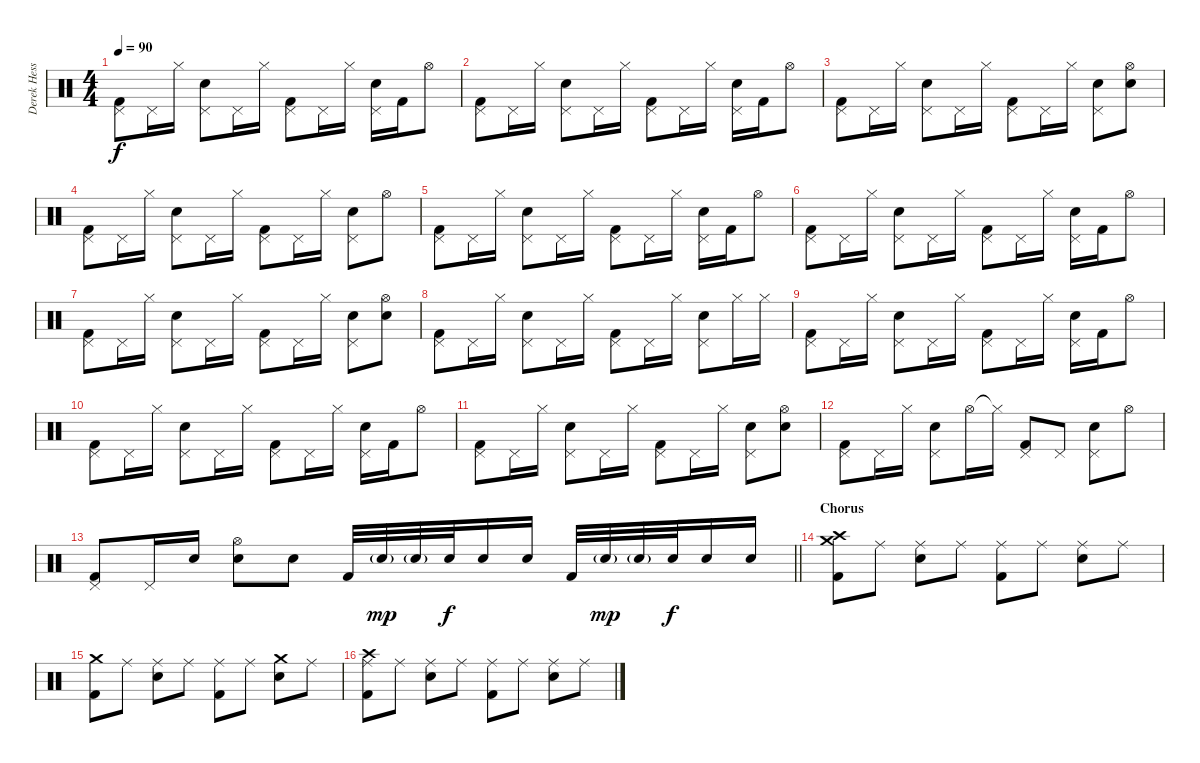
\track ("Derek Hess (Drums and Percussion)" "Derek Hess") {instrument percussion}
\staff {score}
\articulation defaults
\ts (4 4)
\tempo 90
\clef neutral
\ks c
("Pedal Hi-Hat (hit)" "Kick (hit) 2").8{dy f} "Pedal Hi-Hat (hit)".16 "Hi-Hat (closed)".16 ("Snare (hit) 2" "Pedal Hi-Hat (hit)").8 "Pedal Hi-Hat (hit)".16 "Hi-Hat (closed)".16 ("Pedal Hi-Hat (hit)" "Kick (hit) 2").8 "Pedal Hi-Hat (hit)".16 "Hi-Hat (closed)".16 ("Snare (hit) 2" "Pedal Hi-Hat (hit)").16 "Kick (hit) 2".16 "Hi-Hat (open)".8 |
("Pedal Hi-Hat (hit)" "Kick (hit) 2").8 "Pedal Hi-Hat (hit)".16 "Hi-Hat (closed)".16 ("Snare (hit) 2" "Pedal Hi-Hat (hit)").8 "Pedal Hi-Hat (hit)".16 "Hi-Hat (closed)".16 ("Pedal Hi-Hat (hit)" "Kick (hit) 2").8 "Pedal Hi-Hat (hit)".16 "Hi-Hat (closed)".16 ("Snare (hit) 2" "Pedal Hi-Hat (hit)").16 "Kick (hit) 2".16 "Hi-Hat (open)".8 |
("Pedal Hi-Hat (hit)" "Kick (hit) 2").8 "Pedal Hi-Hat (hit)".16 "Hi-Hat (closed)".16 ("Snare (hit) 2" "Pedal Hi-Hat (hit)").8 "Pedal Hi-Hat (hit)".16 "Hi-Hat (closed)".16 ("Pedal Hi-Hat (hit)" "Kick (hit) 2").8 "Pedal Hi-Hat (hit)".16 "Hi-Hat (closed)".16 ("Snare (hit) 2" "Pedal Hi-Hat (hit)").8 ("Snare (hit) 2" "Hi-Hat (open)").8 |
("Pedal Hi-Hat (hit)" "Kick (hit) 2").8 "Pedal Hi-Hat (hit)".16 "Hi-Hat (closed)".16 ("Snare (hit) 2" "Pedal Hi-Hat (hit)").8 "Pedal Hi-Hat (hit)".16 "Hi-Hat (closed)".16 ("Pedal Hi-Hat (hit)" "Kick (hit) 2").8 "Pedal Hi-Hat (hit)".16 "Hi-Hat (closed)".16 ("Snare (hit) 2" "Pedal Hi-Hat (hit)").8 "Hi-Hat (open)".8 |
("Pedal Hi-Hat (hit)" "Kick (hit) 2").8 "Pedal Hi-Hat (hit)".16 "Hi-Hat (closed)".16 ("Snare (hit) 2" "Pedal Hi-Hat (hit)").8 "Pedal Hi-Hat (hit)".16 "Hi-Hat (closed)".16 ("Pedal Hi-Hat (hit)" "Kick (hit) 2").8 "Pedal Hi-Hat (hit)".16 "Hi-Hat (closed)".16 ("Snare (hit) 2" "Pedal Hi-Hat (hit)").16 "Kick (hit) 2".16 "Hi-Hat (open)".8 |
("Pedal Hi-Hat (hit)" "Kick (hit) 2").8 "Pedal Hi-Hat (hit)".16 "Hi-Hat (closed)".16 ("Snare (hit) 2" "Pedal Hi-Hat (hit)").8 "Pedal Hi-Hat (hit)".16 "Hi-Hat (closed)".16 ("Pedal Hi-Hat (hit)" "Kick (hit) 2").8 "Pedal Hi-Hat (hit)".16 "Hi-Hat (closed)".16 ("Snare (hit) 2" "Pedal Hi-Hat (hit)").16 "Kick (hit) 2".16 "Hi-Hat (open)".8 |
("Pedal Hi-Hat (hit)" "Kick (hit) 2").8 "Pedal Hi-Hat (hit)".16 "Hi-Hat (closed)".16 ("Snare (hit) 2" "Pedal Hi-Hat (hit)").8 "Pedal Hi-Hat (hit)".16 "Hi-Hat (closed)".16 ("Pedal Hi-Hat (hit)" "Kick (hit) 2").8 "Pedal Hi-Hat (hit)".16 "Hi-Hat (closed)".16 ("Snare (hit) 2" "Pedal Hi-Hat (hit)").8 ("Snare (hit) 2" "Hi-Hat (open)").8 |
("Pedal Hi-Hat (hit)" "Kick (hit) 2").8 "Pedal Hi-Hat (hit)".16 "Hi-Hat (closed)".16 ("Snare (hit) 2" "Pedal Hi-Hat (hit)").8 "Pedal Hi-Hat (hit)".16 "Hi-Hat (closed)".16 ("Pedal Hi-Hat (hit)" "Kick (hit) 2").8 "Pedal Hi-Hat (hit)".16 "Hi-Hat (closed)".16 ("Snare (hit) 2" "Pedal Hi-Hat (hit)").8 "Hi-Hat (closed)".16 "Hi-Hat (closed)".16 |
("Pedal Hi-Hat (hit)" "Kick (hit) 2").8 "Pedal Hi-Hat (hit)".16 "Hi-Hat (closed)".16 ("Snare (hit) 2" "Pedal Hi-Hat (hit)").8 "Pedal Hi-Hat (hit)".16 "Hi-Hat (closed)".16 ("Pedal Hi-Hat (hit)" "Kick (hit) 2").8 "Pedal Hi-Hat (hit)".16 "Hi-Hat (closed)".16 ("Snare (hit) 2" "Pedal Hi-Hat (hit)").16 "Kick (hit) 2".16 "Hi-Hat (open)".8 |
("Pedal Hi-Hat (hit)" "Kick (hit) 2").8 "Pedal Hi-Hat (hit)".16 "Hi-Hat (closed)".16 ("Snare (hit) 2" "Pedal Hi-Hat (hit)").8 "Pedal Hi-Hat (hit)".16 "Hi-Hat (closed)".16 ("Pedal Hi-Hat (hit)" "Kick (hit) 2").8 "Pedal Hi-Hat (hit)".16 "Hi-Hat (closed)".16 ("Snare (hit) 2" "Pedal Hi-Hat (hit)").16 "Kick (hit) 2".16 "Hi-Hat (open)".8 |
("Pedal Hi-Hat (hit)" "Kick (hit) 2").8 "Pedal Hi-Hat (hit)".16 "Hi-Hat (closed)".16 ("Snare (hit) 2" "Pedal Hi-Hat (hit)").8 "Pedal Hi-Hat (hit)".16 "Hi-Hat (closed)".16 ("Pedal Hi-Hat (hit)" "Kick (hit) 2").8 "Pedal Hi-Hat (hit)".16 "Hi-Hat (closed)".16 ("Snare (hit) 2" "Pedal Hi-Hat (hit)").8 ("Snare (hit) 2" "Hi-Hat (open)").8 |
("Pedal Hi-Hat (hit)" "Kick (hit) 2").8 "Pedal Hi-Hat (hit)".16 "Hi-Hat (closed)".16 ("Snare (hit) 2" "Pedal Hi-Hat (hit)").8 "Hi-Hat (open)".16 "Hi-Hat (closed)"{t}.16 ("Pedal Hi-Hat (hit)" "Kick (hit) 2").8 "Pedal Hi-Hat (hit)".8 ("Snare (hit) 2" "Pedal Hi-Hat (hit)").8 "Hi-Hat (open)".8 |
\barLineRight lightlight
("Pedal Hi-Hat (hit)" "Kick (hit) 2").8 "Pedal Hi-Hat (hit)".16 "Snare (hit) 2".16 ("Snare (hit) 2" "Hi-Hat (open)").8 "Snare (hit) 2".8 "Kick (hit) 2".32 "Snare (hit) 2"{g}.32{dy mp} "Snare (hit) 2"{g}.32 "Snare (hit) 2".32{dy f} "Snare (hit) 2".16 "Snare (hit) 2".16 "Kick (hit) 2".32 "Snare (hit) 2"{g}.32{dy mp} "Snare (hit) 2"{g}.32 "Snare (hit) 2".32{dy f} "Snare (hit) 2".16 "Snare (hit) 2".16 |
\section ("" "Chorus")
("Crash medium (hit)" "Crash high (hit)" "Kick (hit) 2").8 "Ride (middle)".8 ("Ride (middle)" "Snare (hit) 2").8 "Ride (middle)".8 ("Ride (middle)" "Kick (hit) 2").8 "Ride (middle)".8 ("Ride (middle)" "Snare (hit) 2").8 "Ride (middle)".8 |
("Crash medium (hit)" "Kick (hit) 2").8 "Ride (middle)".8 ("Ride (middle)" "Snare (hit) 2").8 "Ride (middle)".8 ("Ride (middle)" "Kick (hit) 2").8 "Ride (middle)".8 ("Crash medium (hit)" "Snare (hit) 2").8 "Ride (middle)".8 |
("Crash high (hit)" "Ride (middle)" "Kick (hit) 2").8 "Ride (middle)".8 ("Ride (middle)" "Snare (hit) 2").8 "Ride (middle)".8 ("Ride (middle)" "Kick (hit) 2").8 "Ride (middle)".8 ("Ride (middle)" "Snare (hit) 2").8 "Ride (middle)".8
